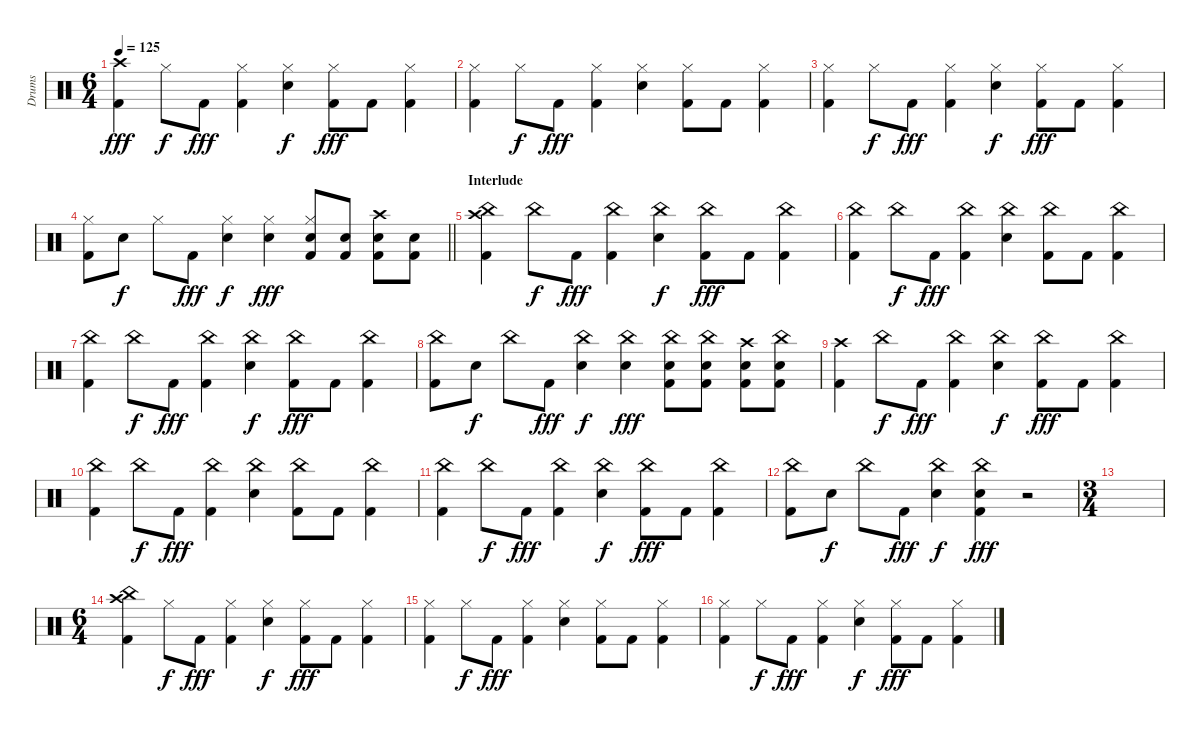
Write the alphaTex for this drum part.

\track ("Drums" "Drums") {instrument percussion}
\staff {score}
\articulation defaults
\ts (6 4)
\tempo 125
\clef neutral
\ks c
("Crash high (hit)" "Kick (hit) 2").4{dy fff} "Hi-Hat (closed)".8{dy f} "Kick (hit) 2".8{dy fff} ("Hi-Hat (closed)" "Kick (hit) 2").4 ("Hi-Hat (closed)" "Snare (hit) 2").4{dy f} ("Hi-Hat (closed)" "Kick (hit) 2").8{dy fff} "Kick (hit) 2".8 ("Hi-Hat (closed)" "Kick (hit) 2").4 |
("Hi-Hat (closed)" "Kick (hit) 2").4 "Hi-Hat (closed)".8{dy f} "Kick (hit) 2".8{dy fff} ("Hi-Hat (closed)" "Kick (hit) 2").4 ("Hi-Hat (closed)" "Snare (hit) 2").4 ("Hi-Hat (closed)" "Kick (hit) 2").8 "Kick (hit) 2".8 ("Hi-Hat (closed)" "Kick (hit) 2").4 |
("Hi-Hat (closed)" "Kick (hit) 2").4 "Hi-Hat (closed)".8{dy f} "Kick (hit) 2".8{dy fff} ("Hi-Hat (closed)" "Kick (hit) 2").4 ("Hi-Hat (closed)" "Snare (hit) 2").4{dy f} ("Hi-Hat (closed)" "Kick (hit) 2").8{dy fff} "Kick (hit) 2".8 ("Hi-Hat (closed)" "Kick (hit) 2").4 |
\barLineRight lightlight
("Hi-Hat (closed)" "Kick (hit) 2").8 "Snare (hit) 2".8{dy f} "Hi-Hat (closed)".8 "Kick (hit) 2".8{dy fff} ("Hi-Hat (closed)" "Snare (hit) 2").4{dy f} ("Hi-Hat (closed)" "Snare (hit) 2").4{dy fff} ("Hi-Hat (closed)" "Snare (hit) 2" "Kick (hit) 2").8 ("Snare (hit) 2" "Kick (hit) 2").8 ("Crash high (hit)" "Snare (hit) 2" "Kick (hit) 2").8 ("Snare (hit) 2" "Kick (hit) 2").8 |
\section ("" "Interlude")
("Crash high (hit)" "China (hit)" "Kick (hit) 2").4 "China (hit)".8{dy f} "Kick (hit) 2".8{dy fff} ("China (hit)" "Kick (hit) 2").4 ("China (hit)" "Snare (hit) 2").4{dy f} ("China (hit)" "Kick (hit) 2").8{dy fff} "Kick (hit) 2".8 ("China (hit)" "Kick (hit) 2").4 |
("China (hit)" "Kick (hit) 2").4 "China (hit)".8{dy f} "Kick (hit) 2".8{dy fff} ("China (hit)" "Kick (hit) 2").4 ("China (hit)" "Snare (hit) 2").4 ("China (hit)" "Kick (hit) 2").8 "Kick (hit) 2".8 ("China (hit)" "Kick (hit) 2").4 |
("China (hit)" "Kick (hit) 2").4 "China (hit)".8{dy f} "Kick (hit) 2".8{dy fff} ("China (hit)" "Kick (hit) 2").4 ("China (hit)" "Snare (hit) 2").4{dy f} ("China (hit)" "Kick (hit) 2").8{dy fff} "Kick (hit) 2".8 ("China (hit)" "Kick (hit) 2").4 |
("China (hit)" "Kick (hit) 2").8 "Snare (hit) 2".8{dy f} "China (hit)".8 "Kick (hit) 2".8{dy fff} ("China (hit)" "Snare (hit) 2").4{dy f} ("China (hit)" "Snare (hit) 2").4{dy fff} ("China (hit)" "Snare (hit) 2" "Kick (hit) 2").8 ("China (hit)" "Snare (hit) 2" "Kick (hit) 2").8 ("Crash high (hit)" "Snare (hit) 2" "Kick (hit) 2").8 ("China (hit)" "Snare (hit) 2" "Kick (hit) 2").8 |
("Crash high (hit)" "Kick (hit) 2").4 "China (hit)".8{dy f} "Kick (hit) 2".8{dy fff} ("China (hit)" "Kick (hit) 2").4 ("China (hit)" "Snare (hit) 2").4{dy f} ("China (hit)" "Kick (hit) 2").8{dy fff} "Kick (hit) 2".8 ("China (hit)" "Kick (hit) 2").4 |
("China (hit)" "Kick (hit) 2").4 "China (hit)".8{dy f} "Kick (hit) 2".8{dy fff} ("China (hit)" "Kick (hit) 2").4 ("China (hit)" "Snare (hit) 2").4 ("China (hit)" "Kick (hit) 2").8 "Kick (hit) 2".8 ("China (hit)" "Kick (hit) 2").4 |
("China (hit)" "Kick (hit) 2").4 "China (hit)".8{dy f} "Kick (hit) 2".8{dy fff} ("China (hit)" "Kick (hit) 2").4 ("China (hit)" "Snare (hit) 2").4{dy f} ("China (hit)" "Kick (hit) 2").8{dy fff} "Kick (hit) 2".8 ("China (hit)" "Kick (hit) 2").4 |
("China (hit)" "Kick (hit) 2").8 "Snare (hit) 2".8{dy f} "China (hit)".8 "Kick (hit) 2".8{dy fff} ("China (hit)" "Snare (hit) 2").4{dy f} ("China (hit)" "Snare (hit) 2" "Kick (hit) 2").4{dy fff} r.2 |
\ts (3 4)
|
\ts (6 4)
("Crash high (hit)" "China (hit)" "Kick (hit) 2").4 "Hi-Hat (closed)".8{dy f} "Kick (hit) 2".8{dy fff} ("Hi-Hat (closed)" "Kick (hit) 2").4 ("Hi-Hat (closed)" "Snare (hit) 2").4{dy f} ("Hi-Hat (closed)" "Kick (hit) 2").8{dy fff} "Kick (hit) 2".8 ("Hi-Hat (closed)" "Kick (hit) 2").4 |
("Hi-Hat (closed)" "Kick (hit) 2").4 "Hi-Hat (closed)".8{dy f} "Kick (hit) 2".8{dy fff} ("Hi-Hat (closed)" "Kick (hit) 2").4 ("Hi-Hat (closed)" "Snare (hit) 2").4 ("Hi-Hat (closed)" "Kick (hit) 2").8 "Kick (hit) 2".8 ("Hi-Hat (closed)" "Kick (hit) 2").4 |
("Hi-Hat (closed)" "Kick (hit) 2").4 "Hi-Hat (closed)".8{dy f} "Kick (hit) 2".8{dy fff} ("Hi-Hat (closed)" "Kick (hit) 2").4 ("Hi-Hat (closed)" "Snare (hit) 2").4{dy f} ("Hi-Hat (closed)" "Kick (hit) 2").8{dy fff} "Kick (hit) 2".8 ("Hi-Hat (closed)" "Kick (hit) 2").4
